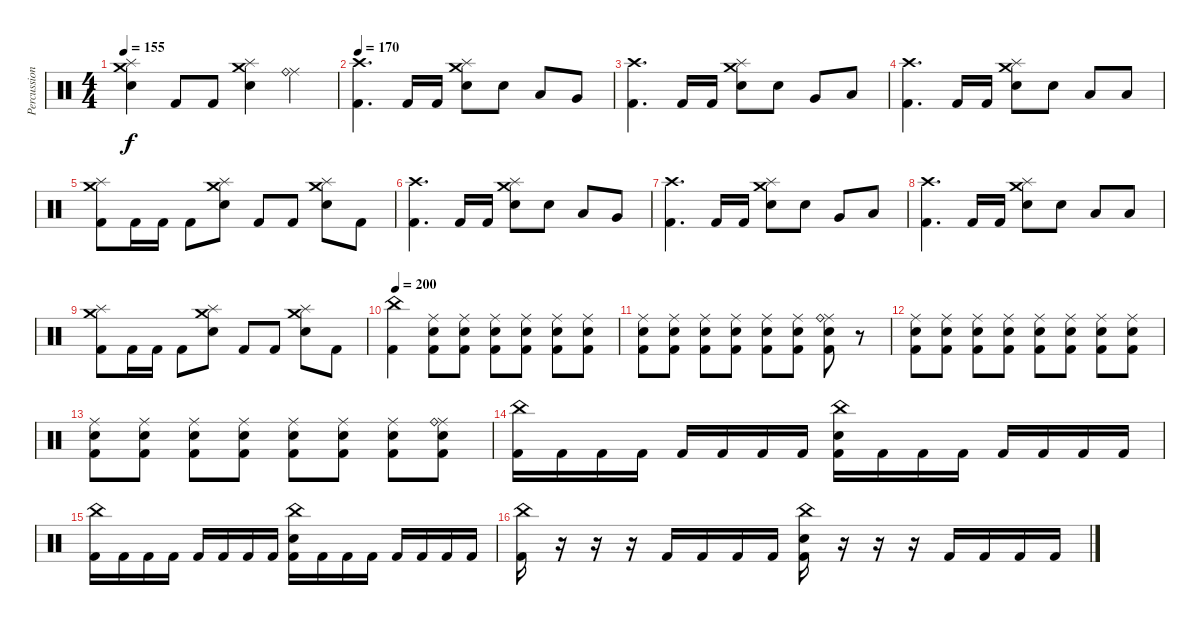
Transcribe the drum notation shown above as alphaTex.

\track ("Percussions" "Percussion") {instrument percussion}
\staff {score}
\articulation defaults
\ts (4 4)
\tempo 155
\clef neutral
\ks c
("Crash medium (hit)" "Splash (hit)" "Electric Snare (hit)").4{dy f} "Kick (hit) 2".8 "Kick (hit) 2".8 ("Splash (hit)" "Crash medium (hit)" "Electric Snare (hit)").4 ("Ride (middle)" "Ride (bell)").4 |
\tempo 170
("Crash high (hit)" "Kick (hit) 2").4{d} "Kick (hit) 2".16 "Kick (hit) 2".16 ("Splash (hit)" "Crash medium (hit)" "Electric Snare (hit)").8 "Electric Snare (hit)".8 "Low Tom (hit)".8 "Very Low Tom (hit)".8 |
("Crash high (hit)" "Kick (hit) 2").4{d} "Kick (hit) 2".16 "Kick (hit) 2".16 ("Splash (hit)" "Crash medium (hit)" "Electric Snare (hit)").8 "Electric Snare (hit)".8 "Very Low Tom (hit)".8 "Low Floor Tom (hit)".8 |
("Crash high (hit)" "Kick (hit) 2").4{d} "Kick (hit) 2".16 "Kick (hit) 2".16 ("Splash (hit)" "Crash medium (hit)" "Electric Snare (hit)").8 "Electric Snare (hit)".8 "Low Floor Tom (hit)".8 "Low Floor Tom (hit)".8 |
("Crash medium (hit)" "Splash (hit)" "Kick (hit) 2").8 "Kick (hit) 2".16 "Kick (hit) 2".16 "Kick (hit) 2".8 ("Splash (hit)" "Crash medium (hit)" "Electric Snare (hit)").8 "Kick (hit) 2".8 "Kick (hit) 2".8 ("Crash medium (hit)" "Splash (hit)" "Electric Snare (hit)").8 "Kick (hit) 2".8 |
("Crash high (hit)" "Kick (hit) 2").4{d} "Kick (hit) 2".16 "Kick (hit) 2".16 ("Splash (hit)" "Crash medium (hit)" "Electric Snare (hit)").8 "Electric Snare (hit)".8 "Low Tom (hit)".8 "Very Low Tom (hit)".8 |
("Crash high (hit)" "Kick (hit) 2").4{d} "Kick (hit) 2".16 "Kick (hit) 2".16 ("Splash (hit)" "Crash medium (hit)" "Electric Snare (hit)").8 "Electric Snare (hit)".8 "Very Low Tom (hit)".8 "Low Floor Tom (hit)".8 |
("Crash high (hit)" "Kick (hit) 2").4{d} "Kick (hit) 2".16 "Kick (hit) 2".16 ("Splash (hit)" "Crash medium (hit)" "Electric Snare (hit)").8 "Electric Snare (hit)".8 "Low Floor Tom (hit)".8 "Low Floor Tom (hit)".8 |
("Crash medium (hit)" "Splash (hit)" "Kick (hit) 2").8 "Kick (hit) 2".16 "Kick (hit) 2".16 "Kick (hit) 2".8 ("Splash (hit)" "Crash medium (hit)" "Electric Snare (hit)").8 "Kick (hit) 2".8 "Kick (hit) 2".8 ("Crash medium (hit)" "Splash (hit)" "Electric Snare (hit)").8 "Kick (hit) 2".8 |
\tempo 200
("China (hit)" "Kick (hit) 2").4 ("Ride (middle)" "Electric Snare (hit)" "Kick (hit) 2").8 ("Ride (middle)" "Electric Snare (hit)" "Kick (hit) 2").8 ("Ride (middle)" "Electric Snare (hit)" "Kick (hit) 2").8 ("Ride (middle)" "Electric Snare (hit)" "Kick (hit) 2").8 ("Ride (middle)" "Electric Snare (hit)" "Kick (hit) 2").8 ("Ride (middle)" "Electric Snare (hit)" "Kick (hit) 2").8 |
("Ride (middle)" "Electric Snare (hit)" "Kick (hit) 2").8 ("Ride (middle)" "Electric Snare (hit)" "Kick (hit) 2").8 ("Ride (middle)" "Electric Snare (hit)" "Kick (hit) 2").8 ("Ride (middle)" "Electric Snare (hit)" "Kick (hit) 2").8 ("Ride (middle)" "Electric Snare (hit)" "Kick (hit) 2").8 ("Ride (middle)" "Electric Snare (hit)" "Kick (hit) 2").8 ("Ride (middle)" "Ride (bell)" "Electric Snare (hit)" "Kick (hit) 2").8 r.8 |
("Ride (middle)" "Electric Snare (hit)" "Kick (hit) 2").8 ("Ride (middle)" "Electric Snare (hit)" "Kick (hit) 2").8 ("Ride (middle)" "Electric Snare (hit)" "Kick (hit) 2").8 ("Ride (middle)" "Electric Snare (hit)" "Kick (hit) 2").8 ("Ride (middle)" "Electric Snare (hit)" "Kick (hit) 2").8 ("Ride (middle)" "Electric Snare (hit)" "Kick (hit) 2").8 ("Ride (middle)" "Electric Snare (hit)" "Kick (hit) 2").8 ("Ride (middle)" "Electric Snare (hit)" "Kick (hit) 2").8 |
("Ride (middle)" "Electric Snare (hit)" "Kick (hit) 2").8 ("Ride (middle)" "Electric Snare (hit)" "Kick (hit) 2").8 ("Ride (middle)" "Electric Snare (hit)" "Kick (hit) 2").8 ("Ride (middle)" "Electric Snare (hit)" "Kick (hit) 2").8 ("Ride (middle)" "Electric Snare (hit)" "Kick (hit) 2").8 ("Ride (middle)" "Electric Snare (hit)" "Kick (hit) 2").8 ("Ride (middle)" "Electric Snare (hit)" "Kick (hit) 2").8 ("Ride (middle)" "Ride (bell)" "Electric Snare (hit)" "Kick (hit) 2").8 |
("China (hit)" "Kick (hit) 2").16 "Kick (hit) 2".16 "Kick (hit) 2".16 "Kick (hit) 2".16 "Kick (hit) 2".16 "Kick (hit) 2".16 "Kick (hit) 2".16 "Kick (hit) 2".16 ("China (hit)" "Electric Snare (hit)" "Kick (hit) 2").16 "Kick (hit) 2".16 "Kick (hit) 2".16 "Kick (hit) 2".16 "Kick (hit) 2".16 "Kick (hit) 2".16 "Kick (hit) 2".16 "Kick (hit) 2".16 |
("China (hit)" "Kick (hit) 2").16 "Kick (hit) 2".16 "Kick (hit) 2".16 "Kick (hit) 2".16 "Kick (hit) 2".16 "Kick (hit) 2".16 "Kick (hit) 2".16 "Kick (hit) 2".16 ("China (hit)" "Electric Snare (hit)" "Kick (hit) 2").16 "Kick (hit) 2".16 "Kick (hit) 2".16 "Kick (hit) 2".16 "Kick (hit) 2".16 "Kick (hit) 2".16 "Kick (hit) 2".16 "Kick (hit) 2".16 |
("China (hit)" "Kick (hit) 2").16 r.16 r.16 r.16 "Kick (hit) 2".16 "Kick (hit) 2".16 "Kick (hit) 2".16 "Kick (hit) 2".16 ("China (hit)" "Electric Snare (hit)" "Kick (hit) 2").16 r.16 r.16 r.16 "Kick (hit) 2".16 "Kick (hit) 2".16 "Kick (hit) 2".16 "Kick (hit) 2".16
